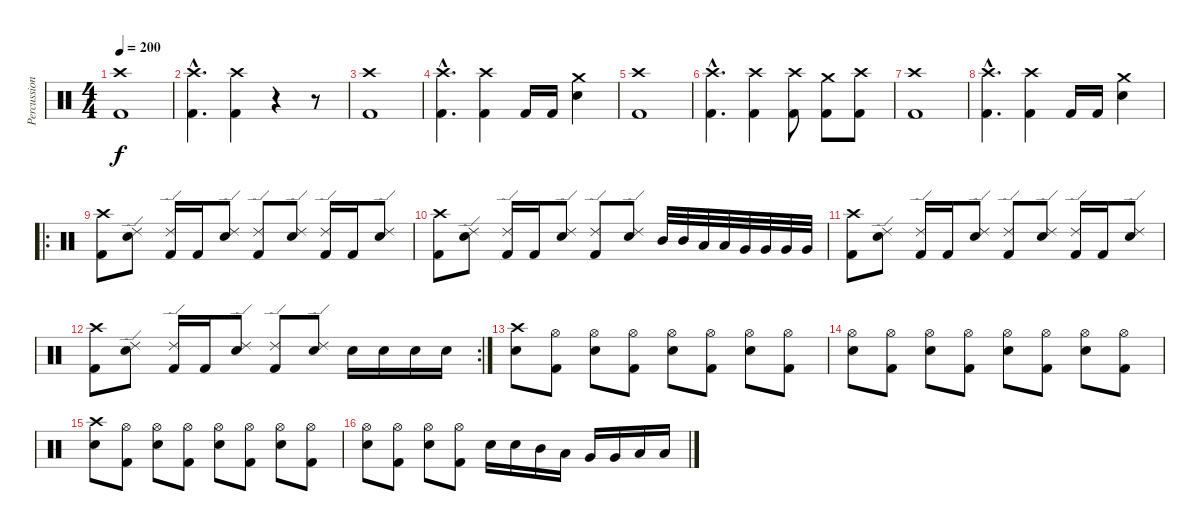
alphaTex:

\track ("Percussions" "Percussion") {instrument percussion}
\staff {score}
\articulation defaults
\ts (4 4)
\tempo 200
\clef neutral
\ks c
("Crash high (hit)" "Kick (hit) 2").1{dy f} |
("Crash high (hit)"{hac} "Kick (hit) 2"{hac}).4{d} ("Crash high (hit)" "Kick (hit) 2").4 r.4 r.8 |
("Crash high (hit)" "Kick (hit) 2").1 |
("Crash high (hit)"{hac} "Kick (hit) 2"{hac}).4{d} ("Crash high (hit)" "Kick (hit) 2").4 "Kick (hit) 2".16 "Kick (hit) 2".16 ("Crash medium (hit)" "Snare (hit) 2").4 |
("Crash high (hit)" "Kick (hit) 2").1 |
("Crash high (hit)"{hac} "Kick (hit) 2"{hac}).4{d} ("Crash high (hit)" "Kick (hit) 2").4 ("Crash high (hit)" "Kick (hit) 2").8 ("Crash medium (hit)" "Kick (hit) 2").8 ("Crash high (hit)" "Kick (hit) 2").8 |
("Crash high (hit)" "Kick (hit) 2").1 |
("Crash high (hit)"{hac} "Kick (hit) 2"{hac}).4{d} ("Crash high (hit)" "Kick (hit) 2").4 "Kick (hit) 2".16 "Kick (hit) 2".16 ("Crash medium (hit)" "Snare (hit) 2").4 |
\ro
("Crash high (hit)" "Kick (hit) 2").8 ("Ride (edge) 2" "Snare (hit) 2").8 ("Ride (edge) 2" "Kick (hit) 2").16 "Kick (hit) 2".16 ("Ride (edge) 2" "Snare (hit) 2").8 ("Ride (edge) 2" "Kick (hit) 2").8 ("Ride (edge) 2" "Snare (hit) 2").8 ("Ride (edge) 2" "Kick (hit) 2").16 "Kick (hit) 2".16 ("Ride (edge) 2" "Snare (hit) 2").8 |
("Crash high (hit)" "Kick (hit) 2").8 ("Ride (edge) 2" "Snare (hit) 2").8 ("Ride (edge) 2" "Kick (hit) 2").16 "Kick (hit) 2".16 ("Ride (edge) 2" "Snare (hit) 2").8 ("Ride (edge) 2" "Kick (hit) 2").8 ("Ride (edge) 2" "Snare (hit) 2").8 "Mid Tom (hit)".32 "Mid Tom (hit)".32 "Low Tom (hit)".32 "Low Floor Tom (hit)".32 "Very Low Tom (hit)".32 "Very Low Tom (hit)".32 "Very Low Tom (hit)".32 "Very Low Tom (hit)".32 |
("Crash high (hit)" "Kick (hit) 2").8 ("Ride (edge) 2" "Snare (hit) 2").8 ("Ride (edge) 2" "Kick (hit) 2").16 "Kick (hit) 2".16 ("Ride (edge) 2" "Snare (hit) 2").8 ("Ride (edge) 2" "Kick (hit) 2").8 ("Ride (edge) 2" "Snare (hit) 2").8 ("Ride (edge) 2" "Kick (hit) 2").16 "Kick (hit) 2".16 ("Ride (edge) 2" "Snare (hit) 2").8 |
\rc 2
("Crash high (hit)" "Kick (hit) 2").8 ("Ride (edge) 2" "Snare (hit) 2").8 ("Ride (edge) 2" "Kick (hit) 2").16 "Kick (hit) 2".16 ("Ride (edge) 2" "Snare (hit) 2").8 ("Ride (edge) 2" "Kick (hit) 2").8 ("Ride (edge) 2" "Snare (hit) 2").8 "Snare (hit) 2".16 "Snare (hit) 2".16 "Snare (hit) 2".16 "Snare (hit) 2".16 |
("Crash high (hit)" "Snare (hit) 2").8 ("Hi-Hat (open)" "Kick (hit) 2").8 ("Hi-Hat (open)" "Snare (hit) 2").8 ("Hi-Hat (open)" "Kick (hit) 2").8 ("Hi-Hat (open)" "Snare (hit) 2").8 ("Hi-Hat (open)" "Kick (hit) 2").8 ("Hi-Hat (open)" "Snare (hit) 2").8 ("Hi-Hat (open)" "Kick (hit) 2").8 |
("Hi-Hat (open)" "Snare (hit) 2").8 ("Hi-Hat (open)" "Kick (hit) 2").8 ("Hi-Hat (open)" "Snare (hit) 2").8 ("Hi-Hat (open)" "Kick (hit) 2").8 ("Hi-Hat (open)" "Snare (hit) 2").8 ("Hi-Hat (open)" "Kick (hit) 2").8 ("Hi-Hat (open)" "Snare (hit) 2").8 ("Hi-Hat (open)" "Kick (hit) 2").8 |
("Crash high (hit)" "Snare (hit) 2").8 ("Hi-Hat (open)" "Kick (hit) 2").8 ("Hi-Hat (open)" "Snare (hit) 2").8 ("Hi-Hat (open)" "Kick (hit) 2").8 ("Hi-Hat (open)" "Snare (hit) 2").8 ("Hi-Hat (open)" "Kick (hit) 2").8 ("Hi-Hat (open)" "Snare (hit) 2").8 ("Hi-Hat (open)" "Kick (hit) 2").8 |
("Hi-Hat (open)" "Snare (hit) 2").8 ("Hi-Hat (open)" "Kick (hit) 2").8 ("Hi-Hat (open)" "Snare (hit) 2").8 ("Hi-Hat (open)" "Kick (hit) 2").8 "Snare (hit) 2".16 "Snare (hit) 2".16 "Mid Tom (hit)".16 "Low Tom (hit)".16 "Very Low Tom (hit)".16 "Very Low Tom (hit)".16 "Low Floor Tom (hit)".16 "Low Floor Tom (hit)".16
